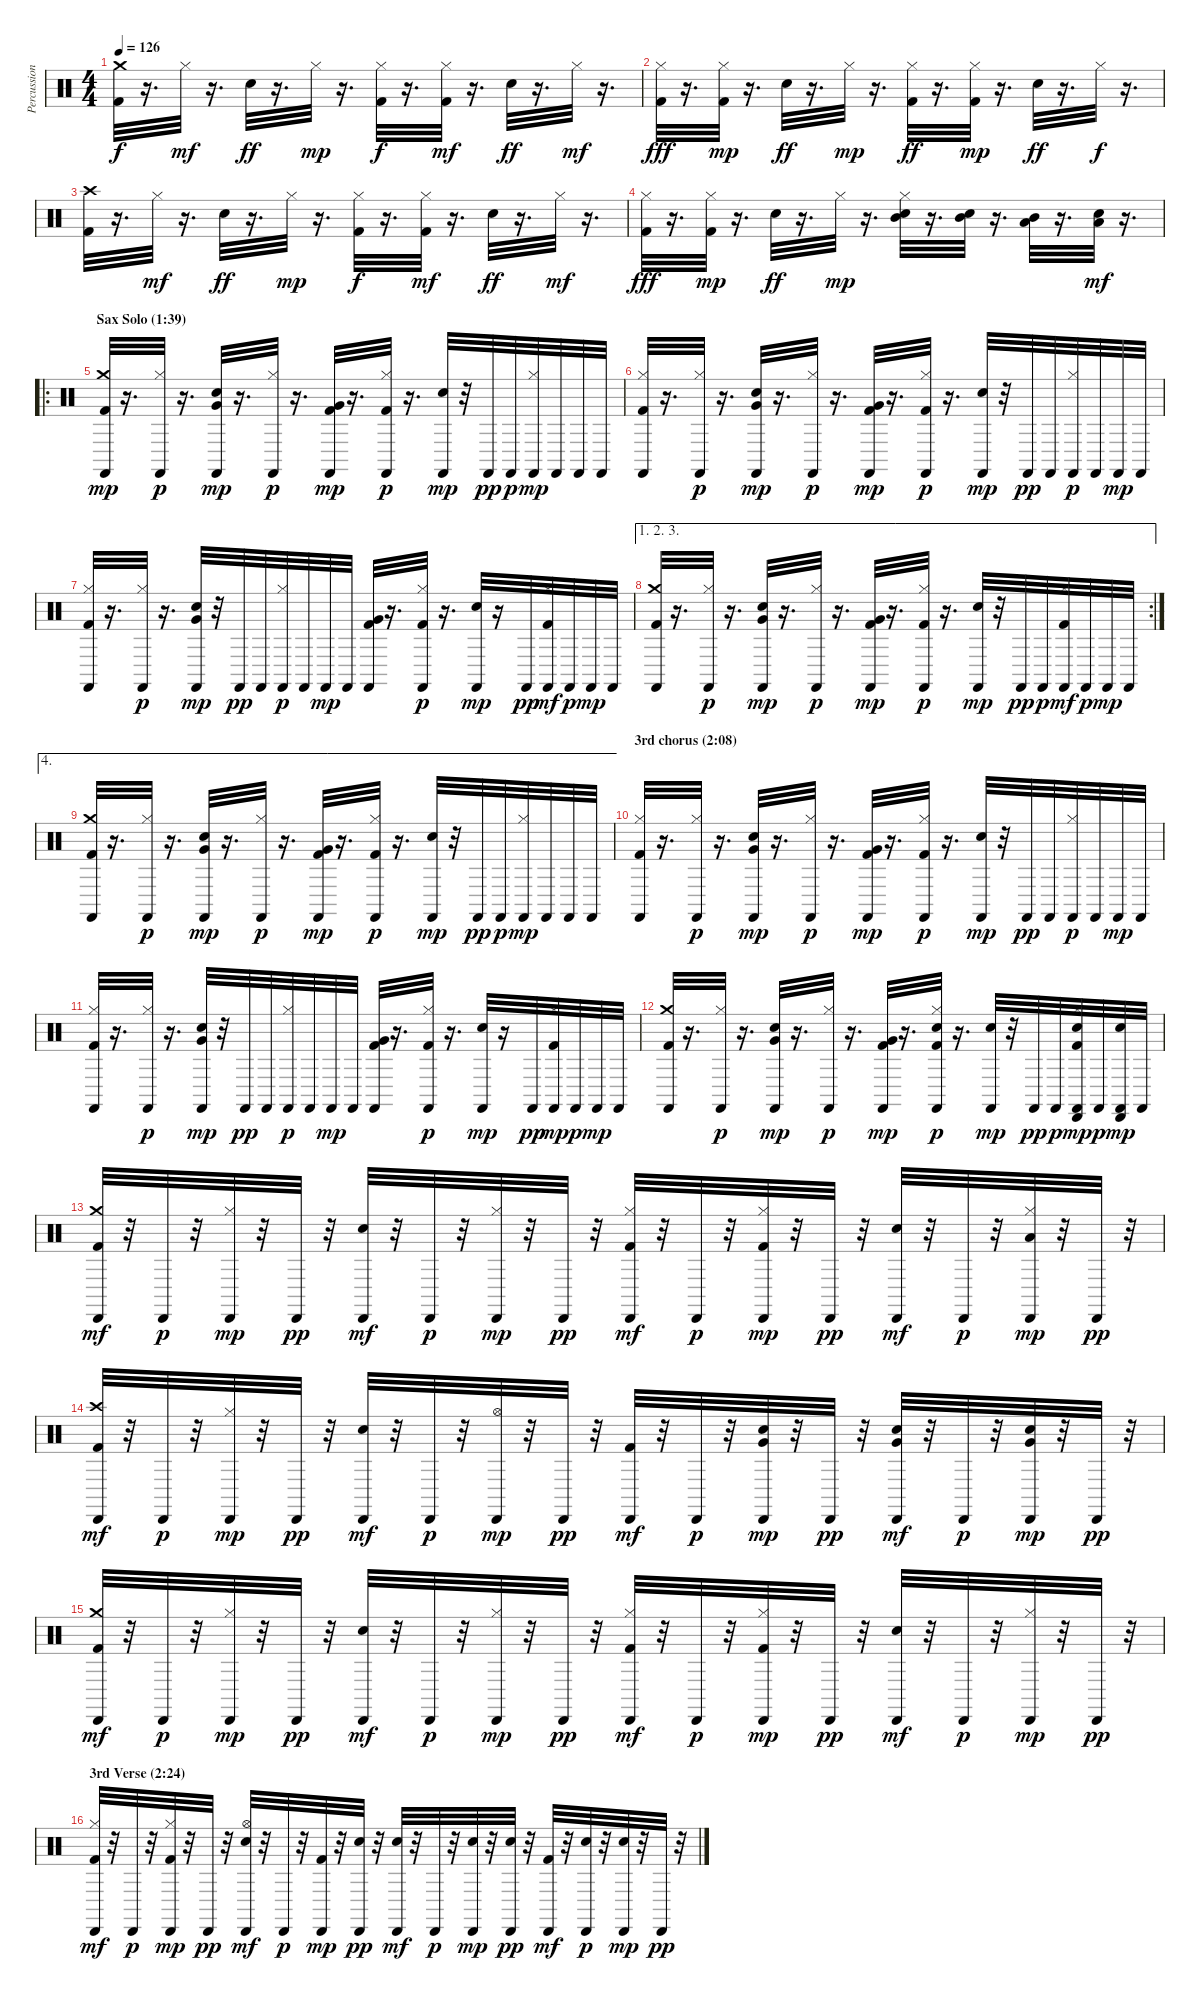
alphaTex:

\track ("Percussions" "Percussion") {instrument percussion}
\staff {score}
\articulation defaults
\ts (4 4)
\tempo 126
\clef neutral
\ks c
("Kick (hit) 2" "Crash medium (hit)").32{dy f} r.16{d} "Hi-Hat (closed)".32{dy mf} r.16{d} "Electric Snare (hit)".32{dy ff} r.16{d} "Hi-Hat (closed)".32{dy mp} r.16{d} ("Kick (hit) 2" "Hi-Hat (closed)").32{dy f} r.16{d} ("Kick (hit) 2" "Hi-Hat (closed)").32{dy mf} r.16{d} "Electric Snare (hit)".32{dy ff} r.16{d} "Hi-Hat (closed)".32{dy mf} r.16{d} |
("Kick (hit) 2" "Hi-Hat (closed)").32{dy fff} r.16{d} ("Kick (hit) 2" "Hi-Hat (closed)").32{dy mp} r.16{d} "Electric Snare (hit)".32{dy ff} r.16{d} "Hi-Hat (closed)".32{dy mp} r.16{d} ("Kick (hit) 2" "Hi-Hat (closed)").32{dy ff} r.16{d} ("Kick (hit) 2" "Hi-Hat (closed)").32{dy mp} r.16{d} "Electric Snare (hit)".32{dy ff} r.16{d} "Hi-Hat (closed)".32{dy f} r.16{d} |
("Kick (hit) 2" "Crash high (hit)").32 r.16{d} "Hi-Hat (closed)".32{dy mf} r.16{d} "Electric Snare (hit)".32{dy ff} r.16{d} "Hi-Hat (closed)".32{dy mp} r.16{d} ("Kick (hit) 2" "Hi-Hat (closed)").32{dy f} r.16{d} ("Kick (hit) 2" "Hi-Hat (closed)").32{dy mf} r.16{d} "Electric Snare (hit)".32{dy ff} r.16{d} "Hi-Hat (closed)".32{dy mf} r.16{d} |
("Kick (hit) 2" "Hi-Hat (closed)").32{dy fff} r.16{d} ("Kick (hit) 2" "Hi-Hat (closed)").32{dy mp} r.16{d} "Electric Snare (hit)".32{dy ff} r.16{d} "Hi-Hat (closed)".32{dy mp} r.16{d} ("Electric Snare (hit)" "Hi-Hat (closed)" "Mid Tom (hit)").32 r.16{d} ("Electric Snare (hit)" "Mid Tom (hit)").32 r.16{d} ("Low Tom (hit)" "Mid Tom (hit)").32 r.16{d} ("Electric Snare (hit)" "Low Tom (hit)").32{dy mf} r.16{d} |
\ro
\section ("" "Sax Solo (1:39)")
("Kick (hit) 2" "Crash medium (hit)" "Castanets (hit)").32{dy mp} r.16{d} ("Hi-Hat (closed)" "Castanets (hit)").32{dy p} r.16{d} ("Electric Snare (hit)" "Very Low Tom (hit)" "Castanets (hit)").32{dy mp} r.16{d} ("Hi-Hat (closed)" "Castanets (hit)").32{dy p} r.16{d} ("Kick (hit) 2" "Very Low Tom (hit)" "Castanets (hit)").32{dy mp} r.16{d} ("Kick (hit) 2" "Hi-Hat (closed)" "Castanets (hit)").32{dy p} r.16{d} ("Electric Snare (hit)" "Castanets (hit)").32{dy mp} r.32 "Castanets (hit)".32{dy pp} "Castanets (hit)".32{dy p} ("Hi-Hat (closed)" "Castanets (hit)").32{dy mp} "Castanets (hit)".32 "Castanets (hit)".32 "Castanets (hit)".32 |
("Kick (hit) 2" "Hi-Hat (closed)" "Castanets (hit)").32 r.16{d} ("Hi-Hat (closed)" "Castanets (hit)").32{dy p} r.16{d} ("Electric Snare (hit)" "Very Low Tom (hit)" "Castanets (hit)").32{dy mp} r.16{d} ("Hi-Hat (closed)" "Castanets (hit)").32{dy p} r.16{d} ("Kick (hit) 2" "Very Low Tom (hit)" "Castanets (hit)").32{dy mp} r.16{d} ("Kick (hit) 2" "Hi-Hat (closed)" "Castanets (hit)").32{dy p} r.16{d} ("Electric Snare (hit)" "Castanets (hit)").32{dy mp} r.32 "Castanets (hit)".32{dy pp} "Castanets (hit)".32 ("Hi-Hat (closed)" "Castanets (hit)").32{dy p} "Castanets (hit)".32 "Castanets (hit)".32{dy mp} "Castanets (hit)".32 |
("Kick (hit) 2" "Hi-Hat (closed)" "Castanets (hit)").32 r.16{d} ("Hi-Hat (closed)" "Castanets (hit)").32{dy p} r.16{d} ("Electric Snare (hit)" "Very Low Tom (hit)" "Castanets (hit)").32{dy mp} r.32 "Castanets (hit)".32{dy pp} "Castanets (hit)".32 ("Hi-Hat (closed)" "Castanets (hit)").32{dy p} "Castanets (hit)".32 "Castanets (hit)".32{dy mp} "Castanets (hit)".32 ("Kick (hit) 2" "Very Low Tom (hit)" "Castanets (hit)").32 r.16{d} ("Kick (hit) 2" "Hi-Hat (closed)" "Castanets (hit)").32{dy p} r.16{d} ("Electric Snare (hit)" "Castanets (hit)").32{dy mp} r.16 "Castanets (hit)".32{dy pp} ("Kick (hit) 2" "Hi-Hat (closed)" "Castanets (hit)").32{dy mf} "Castanets (hit)".32{dy p} "Castanets (hit)".32{dy mp} "Castanets (hit)".32 |
\ae (1 2 3)
\rc 2
("Kick (hit) 2" "Crash medium (hit)" "Castanets (hit)").32 r.16{d} ("Hi-Hat (closed)" "Castanets (hit)").32{dy p} r.16{d} ("Electric Snare (hit)" "Very Low Tom (hit)" "Castanets (hit)").32{dy mp} r.16{d} ("Hi-Hat (closed)" "Castanets (hit)").32{dy p} r.16{d} ("Kick (hit) 2" "Very Low Tom (hit)" "Castanets (hit)").32{dy mp} r.16{d} ("Kick (hit) 2" "Hi-Hat (closed)" "Castanets (hit)").32{dy p} r.16{d} ("Electric Snare (hit)" "Castanets (hit)").32{dy mp} r.32 "Castanets (hit)".32{dy pp} "Castanets (hit)".32{dy p} ("Kick (hit) 2" "Hi-Hat (closed)" "Castanets (hit)").32{dy mf} "Castanets (hit)".32{dy p} "Castanets (hit)".32{dy mp} "Castanets (hit)".32 |
\ae 4
("Kick (hit) 2" "Crash medium (hit)" "Castanets (hit)").32 r.16{d} ("Hi-Hat (closed)" "Castanets (hit)").32{dy p} r.16{d} ("Electric Snare (hit)" "Very Low Tom (hit)" "Castanets (hit)").32{dy mp} r.16{d} ("Hi-Hat (closed)" "Castanets (hit)").32{dy p} r.16{d} ("Kick (hit) 2" "Very Low Tom (hit)" "Castanets (hit)").32{dy mp} r.16{d} ("Kick (hit) 2" "Hi-Hat (closed)" "Castanets (hit)").32{dy p} r.16{d} ("Electric Snare (hit)" "Castanets (hit)").32{dy mp} r.32 "Castanets (hit)".32{dy pp} "Castanets (hit)".32{dy p} ("Hi-Hat (closed)" "Castanets (hit)").32{dy mp} "Castanets (hit)".32 "Castanets (hit)".32 "Castanets (hit)".32 |
\section ("" "3rd chorus (2:08)")
("Kick (hit) 2" "Hi-Hat (closed)" "Castanets (hit)").32 r.16{d} ("Hi-Hat (closed)" "Castanets (hit)").32{dy p} r.16{d} ("Electric Snare (hit)" "Very Low Tom (hit)" "Castanets (hit)").32{dy mp} r.16{d} ("Hi-Hat (closed)" "Castanets (hit)").32{dy p} r.16{d} ("Kick (hit) 2" "Very Low Tom (hit)" "Castanets (hit)").32{dy mp} r.16{d} ("Kick (hit) 2" "Hi-Hat (closed)" "Castanets (hit)").32{dy p} r.16{d} ("Electric Snare (hit)" "Castanets (hit)").32{dy mp} r.32 "Castanets (hit)".32{dy pp} "Castanets (hit)".32 ("Hi-Hat (closed)" "Castanets (hit)").32{dy p} "Castanets (hit)".32 "Castanets (hit)".32{dy mp} "Castanets (hit)".32 |
("Kick (hit) 2" "Hi-Hat (closed)" "Castanets (hit)").32 r.16{d} ("Hi-Hat (closed)" "Castanets (hit)").32{dy p} r.16{d} ("Electric Snare (hit)" "Very Low Tom (hit)" "Castanets (hit)").32{dy mp} r.32 "Castanets (hit)".32{dy pp} "Castanets (hit)".32 ("Hi-Hat (closed)" "Castanets (hit)").32{dy p} "Castanets (hit)".32 "Castanets (hit)".32{dy mp} "Castanets (hit)".32 ("Kick (hit) 2" "Very Low Tom (hit)" "Castanets (hit)").32 r.16{d} ("Kick (hit) 2" "Hi-Hat (closed)" "Castanets (hit)").32{dy p} r.16{d} ("Electric Snare (hit)" "Castanets (hit)").32{dy mp} r.16 "Castanets (hit)".32{dy pp} ("Kick (hit) 2" "Hi-Hat (closed)" "Castanets (hit)").32{dy mp} "Castanets (hit)".32{dy p} "Castanets (hit)".32{dy mp} "Castanets (hit)".32 |
("Kick (hit) 2" "Crash medium (hit)" "Castanets (hit)").32 r.16{d} ("Hi-Hat (closed)" "Castanets (hit)").32{dy p} r.16{d} ("Electric Snare (hit)" "Very Low Tom (hit)" "Castanets (hit)").32{dy mp} r.16{d} ("Hi-Hat (closed)" "Castanets (hit)").32{dy p} r.16{d} ("Kick (hit) 2" "Very Low Tom (hit)" "Castanets (hit)").32{dy mp} r.16{d} ("Kick (hit) 2" "Electric Snare (hit)" "Hi-Hat (closed)" "Castanets (hit)").32{dy p} r.16{d} ("Electric Snare (hit)" "Castanets (hit)").32{dy mp} r.32 "Castanets (hit)".32{dy pp} "Castanets (hit)".32{dy p} ("Kick (hit) 2" "Electric Snare (hit)" "Hi-Hat (closed)" "Cabasa (hit)" "Castanets (hit)").32{dy mp} "Castanets (hit)".32{dy p} ("Electric Snare (hit)" "Cabasa (hit)" "Castanets (hit)").32{dy mp} "Castanets (hit)".32 |
("Kick (hit) 2" "Crash medium (hit)" "Cabasa (hit)").32{dy mf} r.32 "Cabasa (hit)".32{dy p} r.32 ("Hi-Hat (closed)" "Cabasa (hit)").32{dy mp} r.32 "Cabasa (hit)".32{dy pp} r.32 ("Electric Snare (hit)" "Cabasa (hit)").32{dy mf} r.32 "Cabasa (hit)".32{dy p} r.32 ("Hi-Hat (closed)" "Cabasa (hit)").32{dy mp} r.32 "Cabasa (hit)".32{dy pp} r.32 ("Kick (hit) 2" "Hi-Hat (closed)" "Cabasa (hit)").32{dy mf} r.32 "Cabasa (hit)".32{dy p} r.32 ("Kick (hit) 2" "Hi-Hat (closed)" "Cabasa (hit)").32{dy mp} r.32 "Cabasa (hit)".32{dy pp} r.32 ("Electric Snare (hit)" "Cabasa (hit)").32{dy mf} r.32 "Cabasa (hit)".32{dy p} r.32 ("Hi-Hat (closed)" "Low Tom (hit)" "Cabasa (hit)").32{dy mp} r.32 "Cabasa (hit)".32{dy pp} r.32 |
("Kick (hit) 2" "Crash high (hit)" "Cabasa (hit)").32{dy mf} r.32 "Cabasa (hit)".32{dy p} r.32 ("Hi-Hat (closed)" "Cabasa (hit)").32{dy mp} r.32 "Cabasa (hit)".32{dy pp} r.32 ("Electric Snare (hit)" "Cabasa (hit)").32{dy mf} r.32 "Cabasa (hit)".32{dy p} r.32 ("Hi-Hat (open)" "Cabasa (hit)").32{dy mp} r.32 "Cabasa (hit)".32{dy pp} r.32 ("Kick (hit) 2" "Cabasa (hit)").32{dy mf} r.32 "Cabasa (hit)".32{dy p} r.32 ("Electric Snare (hit)" "Very Low Tom (hit)" "Cabasa (hit)").32{dy mp} r.32 "Cabasa (hit)".32{dy pp} r.32 ("Electric Snare (hit)" "Very Low Tom (hit)" "Cabasa (hit)").32{dy mf} r.32 "Cabasa (hit)".32{dy p} r.32 ("Electric Snare (hit)" "Very Low Tom (hit)" "Cabasa (hit)").32{dy mp} r.32 "Cabasa (hit)".32{dy pp} r.32 |
("Kick (hit) 2" "Crash medium (hit)" "Cabasa (hit)").32{dy mf} r.32 "Cabasa (hit)".32{dy p} r.32 ("Hi-Hat (closed)" "Cabasa (hit)").32{dy mp} r.32 "Cabasa (hit)".32{dy pp} r.32 ("Electric Snare (hit)" "Cabasa (hit)").32{dy mf} r.32 "Cabasa (hit)".32{dy p} r.32 ("Hi-Hat (closed)" "Cabasa (hit)").32{dy mp} r.32 "Cabasa (hit)".32{dy pp} r.32 ("Kick (hit) 2" "Hi-Hat (closed)" "Cabasa (hit)").32{dy mf} r.32 "Cabasa (hit)".32{dy p} r.32 ("Kick (hit) 2" "Hi-Hat (closed)" "Cabasa (hit)").32{dy mp} r.32 "Cabasa (hit)".32{dy pp} r.32 ("Electric Snare (hit)" "Cabasa (hit)").32{dy mf} r.32 "Cabasa (hit)".32{dy p} r.32 ("Hi-Hat (closed)" "Cabasa (hit)").32{dy mp} r.32 "Cabasa (hit)".32{dy pp} r.32 |
\section ("" "3rd Verse (2:24)")
("Kick (hit) 2" "Hi-Hat (closed)" "Cabasa (hit)").32{dy mf} r.32 "Cabasa (hit)".32{dy p} r.32 ("Kick (hit) 2" "Hi-Hat (closed)" "Cabasa (hit)").32{dy mp} r.32 "Cabasa (hit)".32{dy pp} r.32 ("Electric Snare (hit)" "Hi-Hat (open)" "Cabasa (hit)").32{dy mf} r.32 "Cabasa (hit)".32{dy p} r.32 ("Kick (hit) 2" "Cabasa (hit)").32{dy mp} r.32 ("Electric Snare (hit)" "Cabasa (hit)").32{dy pp} r.32 ("Electric Snare (hit)" "Cabasa (hit)").32{dy mf} r.32 "Cabasa (hit)".32{dy p} r.32 ("Electric Snare (hit)" "Cabasa (hit)").32{dy mp} r.32 ("Electric Snare (hit)" "Cabasa (hit)").32{dy pp} r.32 ("Kick (hit) 2" "Cabasa (hit)").32{dy mf} r.32 ("Electric Snare (hit)" "Cabasa (hit)").32{dy p} r.32 ("Electric Snare (hit)" "Cabasa (hit)").32{dy mp} r.32 "Cabasa (hit)".32{dy pp} r.32
